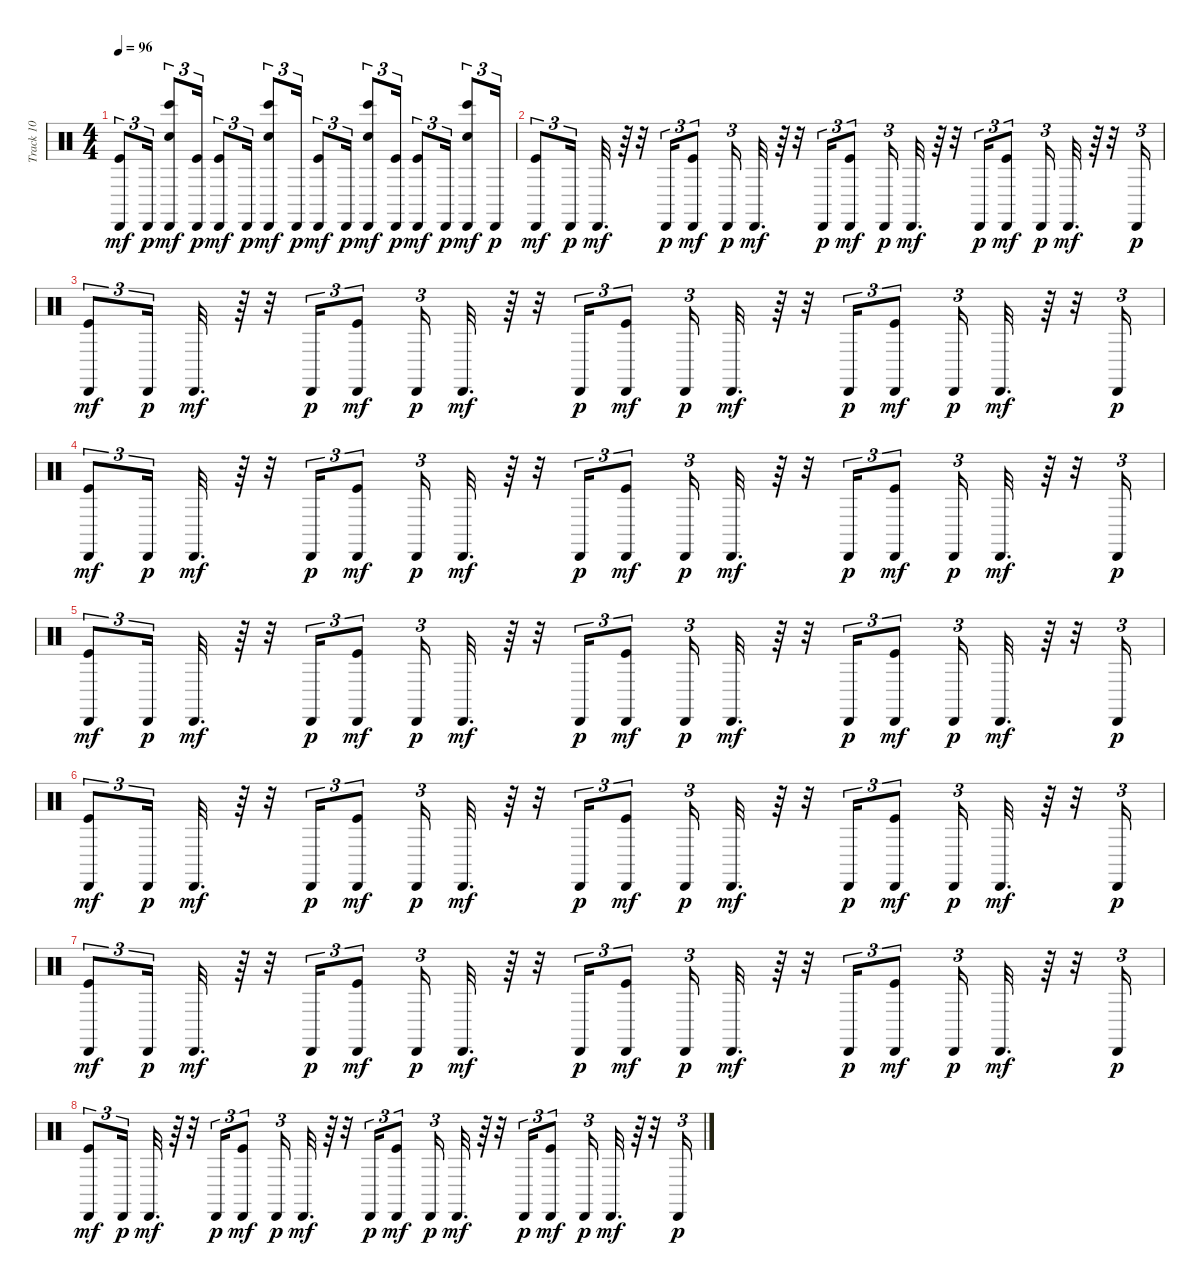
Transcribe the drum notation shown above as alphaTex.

\track ("Track 10" "Track 10") {instrument percussion}
\staff {score}
\articulation defaults
\ts (4 4)
\tempo 96
\clef neutral
\ks c
("Kick (hit)" "Cabasa (hit)").8{tu (3 2) dy mf} "Cabasa (hit)".16{tu (3 2) dy p} ("Bongo High (hit)" "Hand Clap (hit)" "Cabasa (hit)").8{tu (3 2) dy mf} ("Kick (hit)" "Cabasa (hit)").16{tu (3 2) dy p} ("Kick (hit)" "Cabasa (hit)").8{tu (3 2) dy mf} "Cabasa (hit)".16{tu (3 2) dy p} ("Bongo High (hit)" "Hand Clap (hit)" "Cabasa (hit)").8{tu (3 2) dy mf} "Cabasa (hit)".16{tu (3 2) dy p} ("Kick (hit)" "Cabasa (hit)").8{tu (3 2) dy mf} "Cabasa (hit)".16{tu (3 2) dy p} ("Bongo High (hit)" "Hand Clap (hit)" "Cabasa (hit)").8{tu (3 2) dy mf} ("Kick (hit)" "Cabasa (hit)").16{tu (3 2) dy p} ("Kick (hit)" "Cabasa (hit)").8{tu (3 2) dy mf} "Cabasa (hit)".16{tu (3 2) dy p} ("Bongo High (hit)" "Hand Clap (hit)" "Cabasa (hit)").8{tu (3 2) dy mf} "Cabasa (hit)".16{tu (3 2) dy p} |
("Kick (hit)" "Cabasa (hit)").8{tu (3 2) dy mf} "Cabasa (hit)".16{tu (3 2) dy p} "Cabasa (hit)".32{d dy mf} r.64 r.32 "Cabasa (hit)".16{tu (3 2) dy p} ("Kick (hit)" "Cabasa (hit)").8{tu (3 2) dy mf} "Cabasa (hit)".16{tu (3 2) dy p} "Cabasa (hit)".32{d dy mf} r.64 r.32 "Cabasa (hit)".16{tu (3 2) dy p} ("Kick (hit)" "Cabasa (hit)").8{tu (3 2) dy mf} "Cabasa (hit)".16{tu (3 2) dy p} "Cabasa (hit)".32{d dy mf} r.64 r.32 "Cabasa (hit)".16{tu (3 2) dy p} ("Kick (hit)" "Cabasa (hit)").8{tu (3 2) dy mf} "Cabasa (hit)".16{tu (3 2) dy p} "Cabasa (hit)".32{d dy mf} r.64 r.32 "Cabasa (hit)".16{tu (3 2) dy p} |
("Kick (hit)" "Cabasa (hit)").8{tu (3 2) dy mf} "Cabasa (hit)".16{tu (3 2) dy p} "Cabasa (hit)".32{d dy mf} r.64 r.32 "Cabasa (hit)".16{tu (3 2) dy p} ("Kick (hit)" "Cabasa (hit)").8{tu (3 2) dy mf} "Cabasa (hit)".16{tu (3 2) dy p} "Cabasa (hit)".32{d dy mf} r.64 r.32 "Cabasa (hit)".16{tu (3 2) dy p} ("Kick (hit)" "Cabasa (hit)").8{tu (3 2) dy mf} "Cabasa (hit)".16{tu (3 2) dy p} "Cabasa (hit)".32{d dy mf} r.64 r.32 "Cabasa (hit)".16{tu (3 2) dy p} ("Kick (hit)" "Cabasa (hit)").8{tu (3 2) dy mf} "Cabasa (hit)".16{tu (3 2) dy p} "Cabasa (hit)".32{d dy mf} r.64 r.32 "Cabasa (hit)".16{tu (3 2) dy p} |
("Kick (hit)" "Cabasa (hit)").8{tu (3 2) dy mf} "Cabasa (hit)".16{tu (3 2) dy p} "Cabasa (hit)".32{d dy mf} r.64 r.32 "Cabasa (hit)".16{tu (3 2) dy p} ("Kick (hit)" "Cabasa (hit)").8{tu (3 2) dy mf} "Cabasa (hit)".16{tu (3 2) dy p} "Cabasa (hit)".32{d dy mf} r.64 r.32 "Cabasa (hit)".16{tu (3 2) dy p} ("Kick (hit)" "Cabasa (hit)").8{tu (3 2) dy mf} "Cabasa (hit)".16{tu (3 2) dy p} "Cabasa (hit)".32{d dy mf} r.64 r.32 "Cabasa (hit)".16{tu (3 2) dy p} ("Kick (hit)" "Cabasa (hit)").8{tu (3 2) dy mf} "Cabasa (hit)".16{tu (3 2) dy p} "Cabasa (hit)".32{d dy mf} r.64 r.32 "Cabasa (hit)".16{tu (3 2) dy p} |
("Kick (hit)" "Cabasa (hit)").8{tu (3 2) dy mf} "Cabasa (hit)".16{tu (3 2) dy p} "Cabasa (hit)".32{d dy mf} r.64 r.32 "Cabasa (hit)".16{tu (3 2) dy p} ("Kick (hit)" "Cabasa (hit)").8{tu (3 2) dy mf} "Cabasa (hit)".16{tu (3 2) dy p} "Cabasa (hit)".32{d dy mf} r.64 r.32 "Cabasa (hit)".16{tu (3 2) dy p} ("Kick (hit)" "Cabasa (hit)").8{tu (3 2) dy mf} "Cabasa (hit)".16{tu (3 2) dy p} "Cabasa (hit)".32{d dy mf} r.64 r.32 "Cabasa (hit)".16{tu (3 2) dy p} ("Kick (hit)" "Cabasa (hit)").8{tu (3 2) dy mf} "Cabasa (hit)".16{tu (3 2) dy p} "Cabasa (hit)".32{d dy mf} r.64 r.32 "Cabasa (hit)".16{tu (3 2) dy p} |
("Kick (hit)" "Cabasa (hit)").8{tu (3 2) dy mf} "Cabasa (hit)".16{tu (3 2) dy p} "Cabasa (hit)".32{d dy mf} r.64 r.32 "Cabasa (hit)".16{tu (3 2) dy p} ("Kick (hit)" "Cabasa (hit)").8{tu (3 2) dy mf} "Cabasa (hit)".16{tu (3 2) dy p} "Cabasa (hit)".32{d dy mf} r.64 r.32 "Cabasa (hit)".16{tu (3 2) dy p} ("Kick (hit)" "Cabasa (hit)").8{tu (3 2) dy mf} "Cabasa (hit)".16{tu (3 2) dy p} "Cabasa (hit)".32{d dy mf} r.64 r.32 "Cabasa (hit)".16{tu (3 2) dy p} ("Kick (hit)" "Cabasa (hit)").8{tu (3 2) dy mf} "Cabasa (hit)".16{tu (3 2) dy p} "Cabasa (hit)".32{d dy mf} r.64 r.32 "Cabasa (hit)".16{tu (3 2) dy p} |
("Kick (hit)" "Cabasa (hit)").8{tu (3 2) dy mf} "Cabasa (hit)".16{tu (3 2) dy p} "Cabasa (hit)".32{d dy mf} r.64 r.32 "Cabasa (hit)".16{tu (3 2) dy p} ("Kick (hit)" "Cabasa (hit)").8{tu (3 2) dy mf} "Cabasa (hit)".16{tu (3 2) dy p} "Cabasa (hit)".32{d dy mf} r.64 r.32 "Cabasa (hit)".16{tu (3 2) dy p} ("Kick (hit)" "Cabasa (hit)").8{tu (3 2) dy mf} "Cabasa (hit)".16{tu (3 2) dy p} "Cabasa (hit)".32{d dy mf} r.64 r.32 "Cabasa (hit)".16{tu (3 2) dy p} ("Kick (hit)" "Cabasa (hit)").8{tu (3 2) dy mf} "Cabasa (hit)".16{tu (3 2) dy p} "Cabasa (hit)".32{d dy mf} r.64 r.32 "Cabasa (hit)".16{tu (3 2) dy p} |
("Kick (hit)" "Cabasa (hit)").8{tu (3 2) dy mf} "Cabasa (hit)".16{tu (3 2) dy p} "Cabasa (hit)".32{d dy mf} r.64 r.32 "Cabasa (hit)".16{tu (3 2) dy p} ("Kick (hit)" "Cabasa (hit)").8{tu (3 2) dy mf} "Cabasa (hit)".16{tu (3 2) dy p} "Cabasa (hit)".32{d dy mf} r.64 r.32 "Cabasa (hit)".16{tu (3 2) dy p} ("Kick (hit)" "Cabasa (hit)").8{tu (3 2) dy mf} "Cabasa (hit)".16{tu (3 2) dy p} "Cabasa (hit)".32{d dy mf} r.64 r.32 "Cabasa (hit)".16{tu (3 2) dy p} ("Kick (hit)" "Cabasa (hit)").8{tu (3 2) dy mf} "Cabasa (hit)".16{tu (3 2) dy p} "Cabasa (hit)".32{d dy mf} r.64 r.32 "Cabasa (hit)".16{tu (3 2) dy p}
